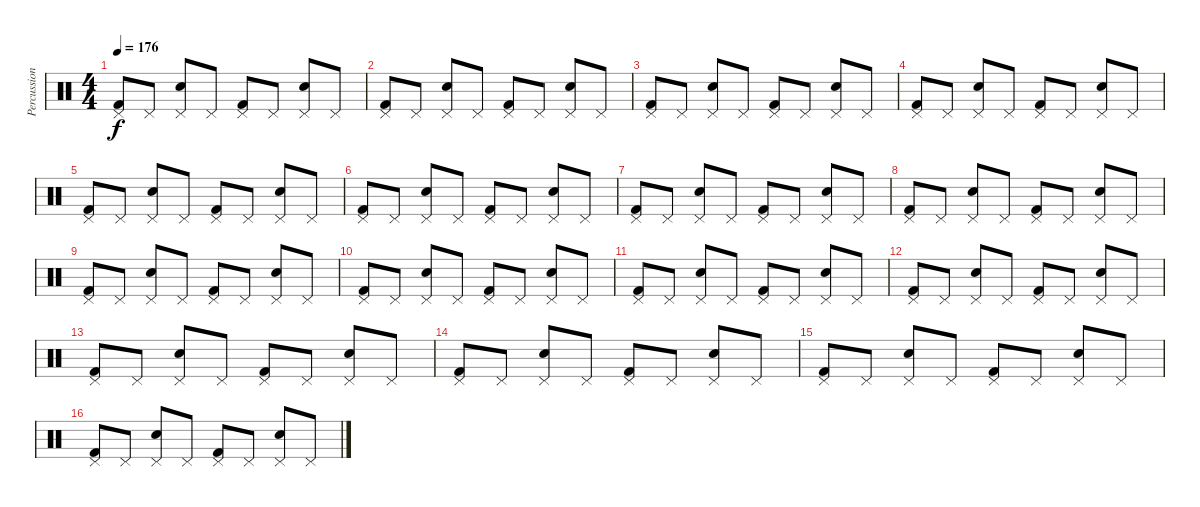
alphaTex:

\track ("Percussions" "Percussion") {instrument percussion}
\staff {score}
\articulation defaults
\ts (4 4)
\tempo 176
\clef neutral
\ks c
("Pedal Hi-Hat (hit)" "Kick (hit) 2").8{dy f} "Pedal Hi-Hat (hit)".8 ("Pedal Hi-Hat (hit)" "Electric Snare (hit)").8 "Pedal Hi-Hat (hit)".8 ("Pedal Hi-Hat (hit)" "Kick (hit) 2").8 "Pedal Hi-Hat (hit)".8 ("Pedal Hi-Hat (hit)" "Electric Snare (hit)").8 "Pedal Hi-Hat (hit)".8 |
("Pedal Hi-Hat (hit)" "Kick (hit) 2").8 "Pedal Hi-Hat (hit)".8 ("Pedal Hi-Hat (hit)" "Electric Snare (hit)").8 "Pedal Hi-Hat (hit)".8 ("Pedal Hi-Hat (hit)" "Kick (hit) 2").8 "Pedal Hi-Hat (hit)".8 ("Pedal Hi-Hat (hit)" "Electric Snare (hit)").8 "Pedal Hi-Hat (hit)".8 |
("Pedal Hi-Hat (hit)" "Kick (hit) 2").8 "Pedal Hi-Hat (hit)".8 ("Pedal Hi-Hat (hit)" "Electric Snare (hit)").8 "Pedal Hi-Hat (hit)".8 ("Pedal Hi-Hat (hit)" "Kick (hit) 2").8 "Pedal Hi-Hat (hit)".8 ("Pedal Hi-Hat (hit)" "Electric Snare (hit)").8 "Pedal Hi-Hat (hit)".8 |
("Pedal Hi-Hat (hit)" "Kick (hit) 2").8{volume 12} "Pedal Hi-Hat (hit)".8 ("Pedal Hi-Hat (hit)" "Electric Snare (hit)").8 "Pedal Hi-Hat (hit)".8 ("Pedal Hi-Hat (hit)" "Kick (hit) 2").8 "Pedal Hi-Hat (hit)".8 ("Pedal Hi-Hat (hit)" "Electric Snare (hit)").8 "Pedal Hi-Hat (hit)".8 |
("Pedal Hi-Hat (hit)" "Kick (hit) 2").8 "Pedal Hi-Hat (hit)".8 ("Pedal Hi-Hat (hit)" "Electric Snare (hit)").8 "Pedal Hi-Hat (hit)".8 ("Pedal Hi-Hat (hit)" "Kick (hit) 2").8 "Pedal Hi-Hat (hit)".8 ("Pedal Hi-Hat (hit)" "Electric Snare (hit)").8 "Pedal Hi-Hat (hit)".8 |
("Pedal Hi-Hat (hit)" "Kick (hit) 2").8 "Pedal Hi-Hat (hit)".8 ("Pedal Hi-Hat (hit)" "Electric Snare (hit)").8 "Pedal Hi-Hat (hit)".8 ("Pedal Hi-Hat (hit)" "Kick (hit) 2").8 "Pedal Hi-Hat (hit)".8 ("Pedal Hi-Hat (hit)" "Electric Snare (hit)").8 "Pedal Hi-Hat (hit)".8 |
("Pedal Hi-Hat (hit)" "Kick (hit) 2").8 "Pedal Hi-Hat (hit)".8 ("Pedal Hi-Hat (hit)" "Electric Snare (hit)").8 "Pedal Hi-Hat (hit)".8 ("Pedal Hi-Hat (hit)" "Kick (hit) 2").8 "Pedal Hi-Hat (hit)".8 ("Pedal Hi-Hat (hit)" "Electric Snare (hit)").8 "Pedal Hi-Hat (hit)".8 |
("Pedal Hi-Hat (hit)" "Kick (hit) 2").8{volume 8} "Pedal Hi-Hat (hit)".8 ("Pedal Hi-Hat (hit)" "Electric Snare (hit)").8 "Pedal Hi-Hat (hit)".8 ("Pedal Hi-Hat (hit)" "Kick (hit) 2").8 "Pedal Hi-Hat (hit)".8 ("Pedal Hi-Hat (hit)" "Electric Snare (hit)").8 "Pedal Hi-Hat (hit)".8 |
("Pedal Hi-Hat (hit)" "Kick (hit) 2").8 "Pedal Hi-Hat (hit)".8 ("Pedal Hi-Hat (hit)" "Electric Snare (hit)").8 "Pedal Hi-Hat (hit)".8 ("Pedal Hi-Hat (hit)" "Kick (hit) 2").8 "Pedal Hi-Hat (hit)".8 ("Pedal Hi-Hat (hit)" "Electric Snare (hit)").8 "Pedal Hi-Hat (hit)".8 |
("Pedal Hi-Hat (hit)" "Kick (hit) 2").8 "Pedal Hi-Hat (hit)".8 ("Pedal Hi-Hat (hit)" "Electric Snare (hit)").8 "Pedal Hi-Hat (hit)".8 ("Pedal Hi-Hat (hit)" "Kick (hit) 2").8 "Pedal Hi-Hat (hit)".8 ("Pedal Hi-Hat (hit)" "Electric Snare (hit)").8 "Pedal Hi-Hat (hit)".8 |
("Pedal Hi-Hat (hit)" "Kick (hit) 2").8 "Pedal Hi-Hat (hit)".8 ("Pedal Hi-Hat (hit)" "Electric Snare (hit)").8 "Pedal Hi-Hat (hit)".8 ("Pedal Hi-Hat (hit)" "Kick (hit) 2").8 "Pedal Hi-Hat (hit)".8 ("Pedal Hi-Hat (hit)" "Electric Snare (hit)").8 "Pedal Hi-Hat (hit)".8 |
("Pedal Hi-Hat (hit)" "Kick (hit) 2").8{volume 4} "Pedal Hi-Hat (hit)".8 ("Pedal Hi-Hat (hit)" "Electric Snare (hit)").8 "Pedal Hi-Hat (hit)".8 ("Pedal Hi-Hat (hit)" "Kick (hit) 2").8 "Pedal Hi-Hat (hit)".8 ("Pedal Hi-Hat (hit)" "Electric Snare (hit)").8 "Pedal Hi-Hat (hit)".8 |
("Pedal Hi-Hat (hit)" "Kick (hit) 2").8 "Pedal Hi-Hat (hit)".8 ("Pedal Hi-Hat (hit)" "Electric Snare (hit)").8 "Pedal Hi-Hat (hit)".8 ("Pedal Hi-Hat (hit)" "Kick (hit) 2").8 "Pedal Hi-Hat (hit)".8 ("Pedal Hi-Hat (hit)" "Electric Snare (hit)").8 "Pedal Hi-Hat (hit)".8 |
("Pedal Hi-Hat (hit)" "Kick (hit) 2").8 "Pedal Hi-Hat (hit)".8 ("Pedal Hi-Hat (hit)" "Electric Snare (hit)").8 "Pedal Hi-Hat (hit)".8 ("Pedal Hi-Hat (hit)" "Kick (hit) 2").8 "Pedal Hi-Hat (hit)".8 ("Pedal Hi-Hat (hit)" "Electric Snare (hit)").8 "Pedal Hi-Hat (hit)".8 |
("Pedal Hi-Hat (hit)" "Kick (hit) 2").8 "Pedal Hi-Hat (hit)".8 ("Pedal Hi-Hat (hit)" "Electric Snare (hit)").8 "Pedal Hi-Hat (hit)".8 ("Pedal Hi-Hat (hit)" "Kick (hit) 2").8 "Pedal Hi-Hat (hit)".8 ("Pedal Hi-Hat (hit)" "Electric Snare (hit)").8 "Pedal Hi-Hat (hit)".8 |
("Pedal Hi-Hat (hit)" "Kick (hit) 2").8{volume 0} "Pedal Hi-Hat (hit)".8 ("Pedal Hi-Hat (hit)" "Electric Snare (hit)").8 "Pedal Hi-Hat (hit)".8 ("Pedal Hi-Hat (hit)" "Kick (hit) 2").8 "Pedal Hi-Hat (hit)".8 ("Pedal Hi-Hat (hit)" "Electric Snare (hit)").8 "Pedal Hi-Hat (hit)".8
